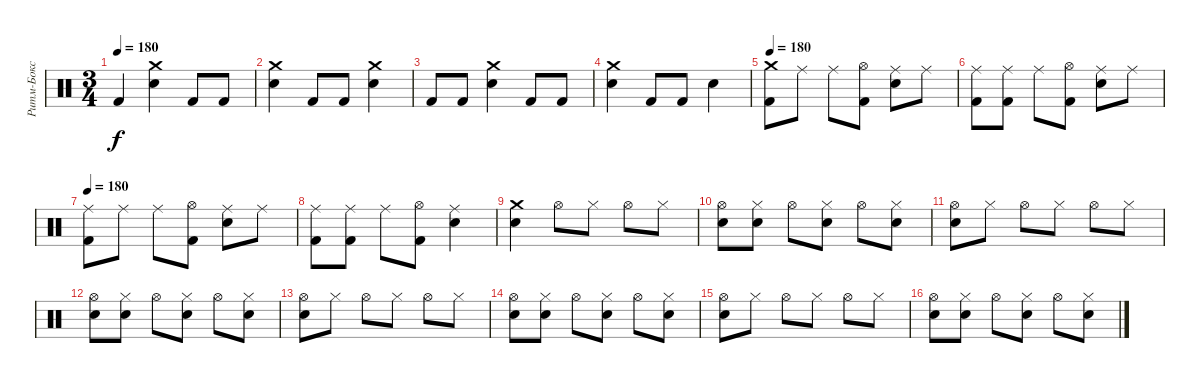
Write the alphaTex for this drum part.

\track ("Ритм-Бокс" "Ритм-Бокс") {instrument percussion}
\staff {score}
\articulation defaults
\ts (3 4)
\tempo 180
\clef neutral
\ks c "Kick (hit) 2".4{dy f}
("Crash medium (hit)" "Snare (hit) 2").4 "Kick (hit) 2".8 "Kick (hit) 2".8 |
("Crash medium (hit)" "Snare (hit) 2").4 "Kick (hit) 2".8 "Kick (hit) 2".8 ("Crash medium (hit)" "Snare (hit) 2").4 |
"Kick (hit) 2".8 "Kick (hit) 2".8 ("Crash medium (hit)" "Snare (hit) 2").4 "Kick (hit) 2".8 "Kick (hit) 2".8 |
("Crash medium (hit)" "Snare (hit) 2").4 "Kick (hit) 2".8 "Kick (hit) 2".8 "Snare (hit) 2".4 |
\tempo 180
("Crash medium (hit)" "Kick (hit) 2").8 "Ride (middle)".8 "Ride (middle)".8 ("Hi-Hat (open)" "Kick (hit) 2").8 ("Ride (middle)" "Snare (hit) 2").8 "Ride (middle)".8 |
("Ride (middle)" "Kick (hit) 2").8 ("Ride (middle)" "Kick (hit) 2").8 "Ride (middle)".8 ("Hi-Hat (open)" "Kick (hit) 2").8 ("Ride (middle)" "Snare (hit) 2").8 "Ride (middle)".8 |
\tempo 180
("Ride (middle)" "Kick (hit) 2").8 "Ride (middle)".8 "Ride (middle)".8 ("Hi-Hat (open)" "Kick (hit) 2").8 ("Ride (middle)" "Snare (hit) 2").8 "Ride (middle)".8 |
("Ride (middle)" "Kick (hit) 2").8 ("Ride (middle)" "Kick (hit) 2").8 "Ride (middle)".8 ("Hi-Hat (open)" "Kick (hit) 2").8 ("Ride (middle)" "Snare (hit) 2").4 |
("Crash medium (hit)" "Electric Snare (hit)").4 "Hi-Hat (open)".8 "Hi-Hat (closed)".8 "Hi-Hat (open)".8 "Hi-Hat (closed)".8 |
("Hi-Hat (open)" "Electric Snare (hit)").8 ("Hi-Hat (closed)" "Electric Snare (hit)").8 "Hi-Hat (open)".8 ("Hi-Hat (closed)" "Electric Snare (hit)").8 "Hi-Hat (open)".8 ("Hi-Hat (closed)" "Electric Snare (hit)").8 |
("Hi-Hat (open)" "Electric Snare (hit)").8 "Hi-Hat (closed)".8 "Hi-Hat (open)".8 "Hi-Hat (closed)".8 "Hi-Hat (open)".8 "Hi-Hat (closed)".8 |
("Hi-Hat (open)" "Electric Snare (hit)").8 ("Hi-Hat (closed)" "Electric Snare (hit)").8 "Hi-Hat (open)".8 ("Hi-Hat (closed)" "Electric Snare (hit)").8 "Hi-Hat (open)".8 ("Hi-Hat (closed)" "Electric Snare (hit)").8 |
("Hi-Hat (open)" "Electric Snare (hit)").8 "Hi-Hat (closed)".8 "Hi-Hat (open)".8 "Hi-Hat (closed)".8 "Hi-Hat (open)".8 "Hi-Hat (closed)".8 |
("Hi-Hat (open)" "Electric Snare (hit)").8 ("Hi-Hat (closed)" "Electric Snare (hit)").8 "Hi-Hat (open)".8 ("Hi-Hat (closed)" "Electric Snare (hit)").8 "Hi-Hat (open)".8 ("Hi-Hat (closed)" "Electric Snare (hit)").8 |
("Hi-Hat (open)" "Electric Snare (hit)").8 "Hi-Hat (closed)".8 "Hi-Hat (open)".8 "Hi-Hat (closed)".8 "Hi-Hat (open)".8 "Hi-Hat (closed)".8 |
("Hi-Hat (open)" "Electric Snare (hit)").8 ("Hi-Hat (closed)" "Electric Snare (hit)").8 "Hi-Hat (open)".8 ("Hi-Hat (closed)" "Electric Snare (hit)").8 "Hi-Hat (open)".8 ("Hi-Hat (closed)" "Electric Snare (hit)").8
